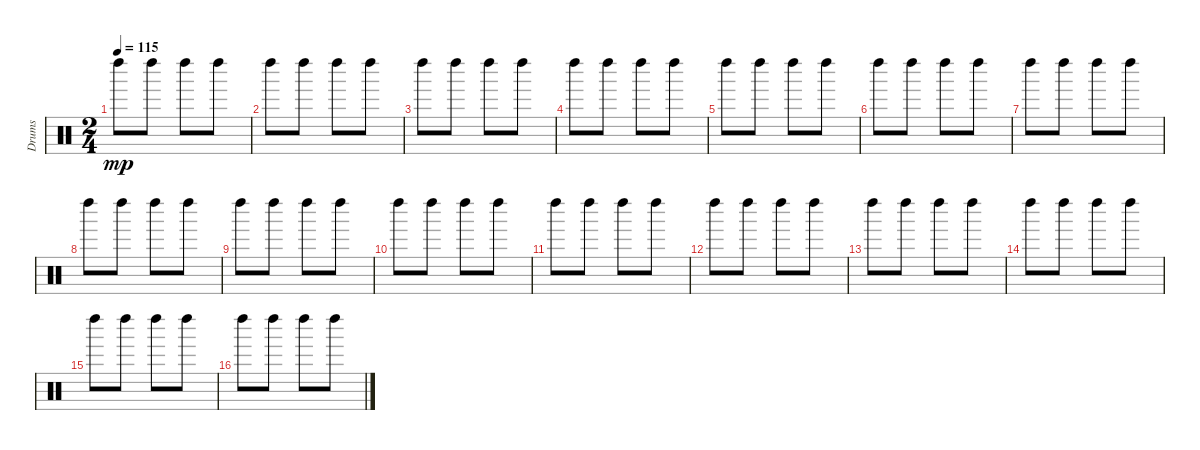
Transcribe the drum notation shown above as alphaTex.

\track ("Drums" "Drums") {instrument percussion}
\staff {score}
\articulation defaults
\ts (2 4)
\tempo 115
\clef neutral
\ks c "Left Maraca (hit)".8{dy mp} "Left Maraca (hit)".8 "Left Maraca (hit)".8 "Left Maraca (hit)".8
|
"Left Maraca (hit)".8 "Left Maraca (hit)".8 "Left Maraca (hit)".8 "Left Maraca (hit)".8 |
"Left Maraca (hit)".8 "Left Maraca (hit)".8 "Left Maraca (hit)".8 "Left Maraca (hit)".8 |
"Left Maraca (hit)".8 "Left Maraca (hit)".8 "Left Maraca (hit)".8 "Left Maraca (hit)".8 |
"Left Maraca (hit)".8 "Left Maraca (hit)".8 "Left Maraca (hit)".8 "Left Maraca (hit)".8 |
"Left Maraca (hit)".8 "Left Maraca (hit)".8 "Left Maraca (hit)".8 "Left Maraca (hit)".8 |
"Left Maraca (hit)".8 "Left Maraca (hit)".8 "Left Maraca (hit)".8 "Left Maraca (hit)".8 |
"Left Maraca (hit)".8 "Left Maraca (hit)".8 "Left Maraca (hit)".8 "Left Maraca (hit)".8 |
"Left Maraca (hit)".8 "Left Maraca (hit)".8 "Left Maraca (hit)".8 "Left Maraca (hit)".8 |
"Left Maraca (hit)".8 "Left Maraca (hit)".8 "Left Maraca (hit)".8 "Left Maraca (hit)".8{volume 16} |
"Left Maraca (hit)".8{volume 15} "Left Maraca (hit)".8{volume 14} "Left Maraca (hit)".8{volume 14} "Left Maraca (hit)".8 |
"Left Maraca (hit)".8 "Left Maraca (hit)".8 "Left Maraca (hit)".8 "Left Maraca (hit)".8 |
"Left Maraca (hit)".8 "Left Maraca (hit)".8 "Left Maraca (hit)".8 "Left Maraca (hit)".8 |
"Left Maraca (hit)".8 "Left Maraca (hit)".8 "Left Maraca (hit)".8 "Left Maraca (hit)".8 |
"Left Maraca (hit)".8 "Left Maraca (hit)".8 "Left Maraca (hit)".8 "Left Maraca (hit)".8 |
"Left Maraca (hit)".8 "Left Maraca (hit)".8 "Left Maraca (hit)".8 "Left Maraca (hit)".8
